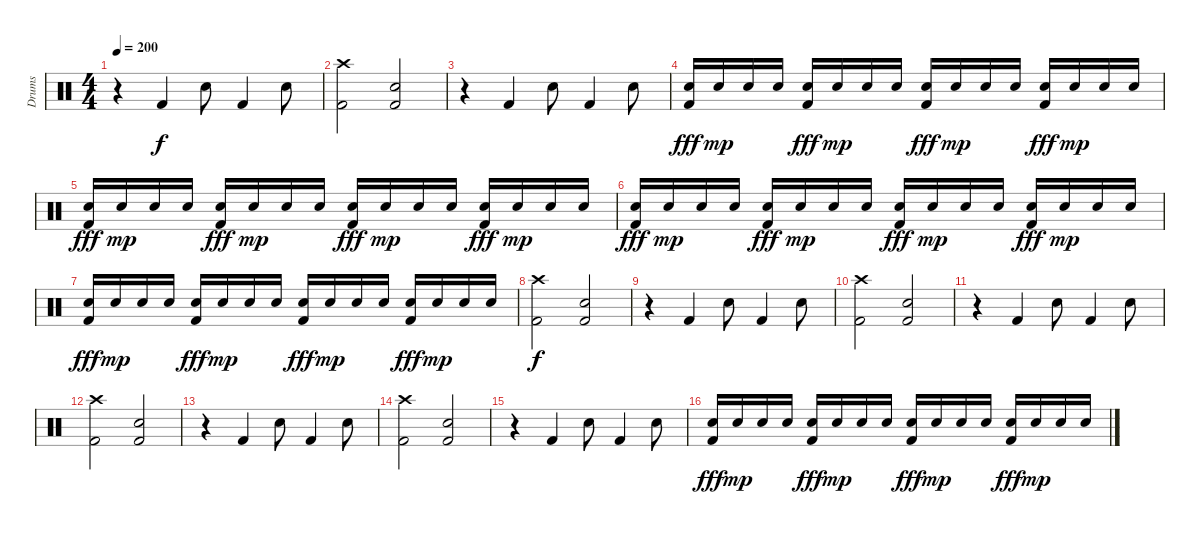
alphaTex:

\track ("Drums" "Drums") {instrument percussion}
\staff {score}
\articulation defaults
\ts (4 4)
\tempo 200
\clef neutral
\ks c
r.4{dy f} "Kick (hit) 2".4 "Snare (hit) 2".8 "Kick (hit) 2".4 "Snare (hit) 2".8 |
("Crash high (hit)" "Kick (hit) 2").2 ("Snare (hit) 2" "Kick (hit) 2").2 |
r.4 "Kick (hit) 2".4 "Snare (hit) 2".8 "Kick (hit) 2".4 "Snare (hit) 2".8 |
("Snare (hit) 2" "Kick (hit) 2").16{dy fff} "Snare (hit) 2".16{dy mp} "Snare (hit) 2".16 "Snare (hit) 2".16 ("Snare (hit) 2" "Kick (hit) 2").16{dy fff} "Snare (hit) 2".16{dy mp} "Snare (hit) 2".16 "Snare (hit) 2".16 ("Snare (hit) 2" "Kick (hit) 2").16{dy fff} "Snare (hit) 2".16{dy mp} "Snare (hit) 2".16 "Snare (hit) 2".16 ("Snare (hit) 2" "Kick (hit) 2").16{dy fff} "Snare (hit) 2".16{dy mp} "Snare (hit) 2".16 "Snare (hit) 2".16 |
("Snare (hit) 2" "Kick (hit) 2").16{dy fff} "Snare (hit) 2".16{dy mp} "Snare (hit) 2".16 "Snare (hit) 2".16 ("Snare (hit) 2" "Kick (hit) 2").16{dy fff} "Snare (hit) 2".16{dy mp} "Snare (hit) 2".16 "Snare (hit) 2".16 ("Snare (hit) 2" "Kick (hit) 2").16{dy fff} "Snare (hit) 2".16{dy mp} "Snare (hit) 2".16 "Snare (hit) 2".16 ("Snare (hit) 2" "Kick (hit) 2").16{dy fff} "Snare (hit) 2".16{dy mp} "Snare (hit) 2".16 "Snare (hit) 2".16 |
("Snare (hit) 2" "Kick (hit) 2").16{dy fff} "Snare (hit) 2".16{dy mp} "Snare (hit) 2".16 "Snare (hit) 2".16 ("Snare (hit) 2" "Kick (hit) 2").16{dy fff} "Snare (hit) 2".16{dy mp} "Snare (hit) 2".16 "Snare (hit) 2".16 ("Snare (hit) 2" "Kick (hit) 2").16{dy fff} "Snare (hit) 2".16{dy mp} "Snare (hit) 2".16 "Snare (hit) 2".16 ("Snare (hit) 2" "Kick (hit) 2").16{dy fff} "Snare (hit) 2".16{dy mp} "Snare (hit) 2".16 "Snare (hit) 2".16 |
("Snare (hit) 2" "Kick (hit) 2").16{dy fff} "Snare (hit) 2".16{dy mp} "Snare (hit) 2".16 "Snare (hit) 2".16 ("Snare (hit) 2" "Kick (hit) 2").16{dy fff} "Snare (hit) 2".16{dy mp} "Snare (hit) 2".16 "Snare (hit) 2".16 ("Snare (hit) 2" "Kick (hit) 2").16{dy fff} "Snare (hit) 2".16{dy mp} "Snare (hit) 2".16 "Snare (hit) 2".16 ("Snare (hit) 2" "Kick (hit) 2").16{dy fff} "Snare (hit) 2".16{dy mp} "Snare (hit) 2".16 "Snare (hit) 2".16 |
("Crash high (hit)" "Kick (hit) 2").2{dy f} ("Snare (hit) 2" "Kick (hit) 2").2 |
r.4 "Kick (hit) 2".4 "Snare (hit) 2".8 "Kick (hit) 2".4 "Snare (hit) 2".8 |
("Crash high (hit)" "Kick (hit) 2").2 ("Snare (hit) 2" "Kick (hit) 2").2 |
r.4 "Kick (hit) 2".4 "Snare (hit) 2".8 "Kick (hit) 2".4 "Snare (hit) 2".8 |
("Crash high (hit)" "Kick (hit) 2").2 ("Snare (hit) 2" "Kick (hit) 2").2 |
r.4 "Kick (hit) 2".4 "Snare (hit) 2".8 "Kick (hit) 2".4 "Snare (hit) 2".8 |
("Crash high (hit)" "Kick (hit) 2").2 ("Snare (hit) 2" "Kick (hit) 2").2 |
r.4 "Kick (hit) 2".4 "Snare (hit) 2".8 "Kick (hit) 2".4 "Snare (hit) 2".8 |
("Snare (hit) 2" "Kick (hit) 2").16{dy fff} "Snare (hit) 2".16{dy mp} "Snare (hit) 2".16 "Snare (hit) 2".16 ("Snare (hit) 2" "Kick (hit) 2").16{dy fff} "Snare (hit) 2".16{dy mp} "Snare (hit) 2".16 "Snare (hit) 2".16 ("Snare (hit) 2" "Kick (hit) 2").16{dy fff} "Snare (hit) 2".16{dy mp} "Snare (hit) 2".16 "Snare (hit) 2".16 ("Snare (hit) 2" "Kick (hit) 2").16{dy fff} "Snare (hit) 2".16{dy mp} "Snare (hit) 2".16 "Snare (hit) 2".16
